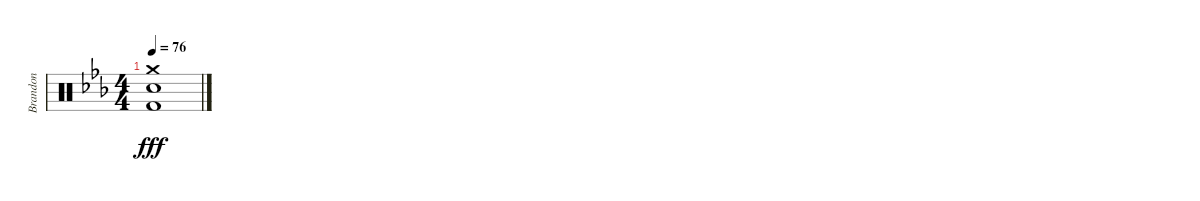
\track ("Brandon" "Brandon") {instrument percussion}
\staff {score}
\articulation defaults
\ts (4 4)
\tempo 76
\clef neutral
\ks cminor
("Crash medium (hit)" "Electric Snare (hit)" "Kick (hit) 2").1{dy fff}
